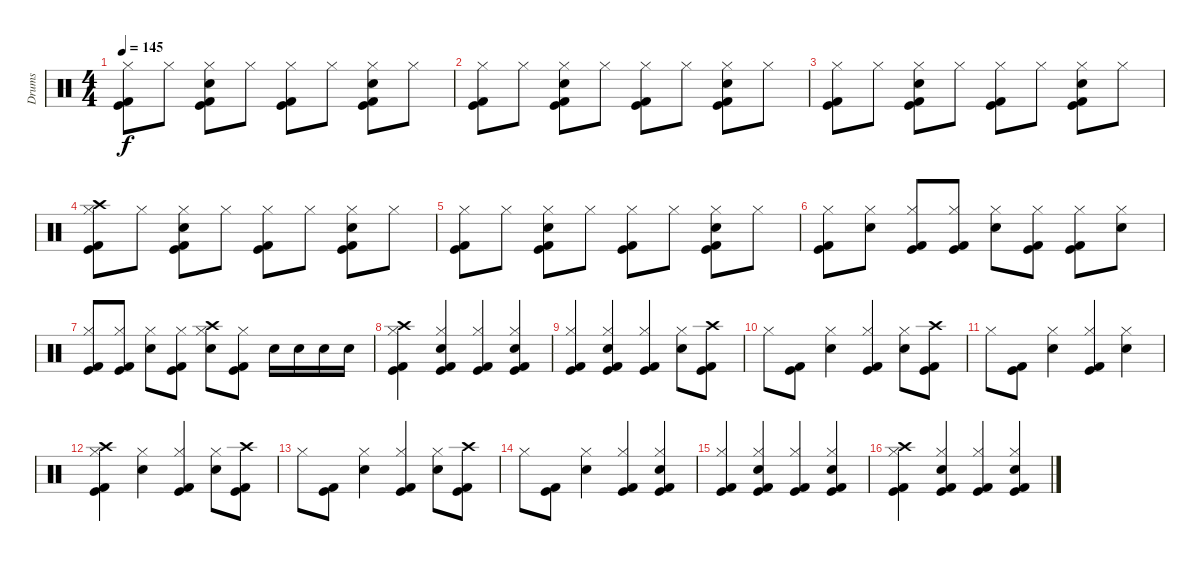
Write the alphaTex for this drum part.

\track ("Drums" "Drums") {instrument percussion}
\staff {score}
\articulation defaults
\ts (4 4)
\tempo 145
\clef neutral
\ks c
("Kick (hit) 2" "Hi-Hat (closed)" "Kick (hit)").8{dy f} "Hi-Hat (closed)".8 ("Electric Snare (hit)" "Hi-Hat (closed)" "Kick (hit) 2" "Kick (hit)").8 "Hi-Hat (closed)".8 ("Kick (hit) 2" "Hi-Hat (closed)" "Kick (hit)").8 "Hi-Hat (closed)".8 ("Electric Snare (hit)" "Hi-Hat (closed)" "Kick (hit) 2" "Kick (hit)").8 "Hi-Hat (closed)".8 |
("Hi-Hat (closed)" "Kick (hit) 2" "Kick (hit)").8 "Hi-Hat (closed)".8 ("Hi-Hat (closed)" "Electric Snare (hit)" "Kick (hit) 2" "Kick (hit)").8 "Hi-Hat (closed)".8 ("Hi-Hat (closed)" "Kick (hit) 2" "Kick (hit)").8 "Hi-Hat (closed)".8 ("Hi-Hat (closed)" "Electric Snare (hit)" "Kick (hit) 2" "Kick (hit)").8 "Hi-Hat (closed)".8 |
("Hi-Hat (closed)" "Kick (hit) 2" "Kick (hit)").8 "Hi-Hat (closed)".8 ("Hi-Hat (closed)" "Electric Snare (hit)" "Kick (hit) 2" "Kick (hit)").8 "Hi-Hat (closed)".8 ("Hi-Hat (closed)" "Kick (hit) 2" "Kick (hit)").8 "Hi-Hat (closed)".8 ("Hi-Hat (closed)" "Electric Snare (hit)" "Kick (hit) 2" "Kick (hit)").8 "Hi-Hat (closed)".8 |
("Crash high (hit)" "Kick (hit) 2" "Hi-Hat (closed)" "Kick (hit)").8 "Hi-Hat (closed)".8 ("Electric Snare (hit)" "Hi-Hat (closed)" "Kick (hit) 2" "Kick (hit)").8 "Hi-Hat (closed)".8 ("Kick (hit) 2" "Hi-Hat (closed)" "Kick (hit)").8 "Hi-Hat (closed)".8 ("Hi-Hat (closed)" "Electric Snare (hit)" "Kick (hit) 2" "Kick (hit)").8 "Hi-Hat (closed)".8 |
("Kick (hit) 2" "Hi-Hat (closed)" "Kick (hit)").8 "Hi-Hat (closed)".8 ("Electric Snare (hit)" "Hi-Hat (closed)" "Kick (hit) 2" "Kick (hit)").8 "Hi-Hat (closed)".8 ("Kick (hit) 2" "Hi-Hat (closed)" "Kick (hit)").8 "Hi-Hat (closed)".8 ("Electric Snare (hit)" "Hi-Hat (closed)" "Kick (hit) 2" "Kick (hit)").8 "Hi-Hat (closed)".8 |
("Kick (hit) 2" "Hi-Hat (closed)" "Kick (hit)").8 ("Hi-Hat (closed)" "Electric Snare (hit)").8 ("Hi-Hat (closed)" "Kick (hit) 2" "Kick (hit)").8 ("Kick (hit) 2" "Hi-Hat (closed)" "Kick (hit)").8 ("Hi-Hat (closed)" "Electric Snare (hit)").8 ("Hi-Hat (closed)" "Kick (hit) 2" "Kick (hit)").8 ("Hi-Hat (closed)" "Kick (hit) 2" "Kick (hit)").8 ("Electric Snare (hit)" "Hi-Hat (closed)").8 |
("Hi-Hat (closed)" "Kick (hit) 2" "Kick (hit)").8 ("Hi-Hat (closed)" "Kick (hit) 2" "Kick (hit)").8 ("Electric Snare (hit)" "Hi-Hat (closed)").8 ("Hi-Hat (closed)" "Kick (hit) 2" "Kick (hit)").8 ("Crash high (hit)" "Hi-Hat (closed)" "Electric Snare (hit)").8 ("Hi-Hat (closed)" "Kick (hit) 2" "Kick (hit)").8 "Electric Snare (hit)".16 "Electric Snare (hit)".16 "Electric Snare (hit)".16 "Electric Snare (hit)".16 |
("Crash high (hit)" "Hi-Hat (closed)" "Kick (hit) 2" "Kick (hit)").4 ("Hi-Hat (closed)" "Electric Snare (hit)" "Kick (hit) 2" "Kick (hit)").4 ("Hi-Hat (closed)" "Kick (hit) 2" "Kick (hit)").4 ("Electric Snare (hit)" "Hi-Hat (closed)" "Kick (hit) 2" "Kick (hit)").4 |
("Kick (hit) 2" "Hi-Hat (closed)" "Kick (hit)").4 ("Electric Snare (hit)" "Hi-Hat (closed)" "Kick (hit) 2" "Kick (hit)").4 ("Hi-Hat (closed)" "Kick (hit) 2" "Kick (hit)").4 ("Hi-Hat (closed)" "Electric Snare (hit)").8 ("Kick (hit) 2" "Crash high (hit)" "Kick (hit)").8 |
"Hi-Hat (closed)".8 ("Kick (hit) 2" "Kick (hit)").8 ("Hi-Hat (closed)" "Electric Snare (hit)").4 ("Hi-Hat (closed)" "Kick (hit) 2" "Kick (hit)").4 ("Electric Snare (hit)" "Hi-Hat (closed)").8 ("Kick (hit) 2" "Crash high (hit)" "Kick (hit)").8 |
"Hi-Hat (closed)".8 ("Kick (hit) 2" "Kick (hit)").8 ("Electric Snare (hit)" "Hi-Hat (closed)").4 ("Hi-Hat (closed)" "Kick (hit) 2" "Kick (hit)").4 ("Hi-Hat (closed)" "Electric Snare (hit)").4 |
("Crash high (hit)" "Hi-Hat (closed)" "Kick (hit) 2" "Kick (hit)").4 ("Hi-Hat (closed)" "Electric Snare (hit)").4 ("Hi-Hat (closed)" "Kick (hit) 2" "Kick (hit)").4 ("Electric Snare (hit)" "Hi-Hat (closed)").8 ("Crash high (hit)" "Kick (hit) 2" "Kick (hit)").8 |
"Hi-Hat (closed)".8 ("Kick (hit) 2" "Kick (hit)").8 ("Electric Snare (hit)" "Hi-Hat (closed)").4 ("Hi-Hat (closed)" "Kick (hit) 2" "Kick (hit)").4 ("Hi-Hat (closed)" "Electric Snare (hit)").8 ("Crash high (hit)" "Kick (hit) 2" "Kick (hit)").8 |
"Hi-Hat (closed)".8 ("Kick (hit) 2" "Kick (hit)").8 ("Hi-Hat (closed)" "Electric Snare (hit)").4 ("Hi-Hat (closed)" "Kick (hit) 2" "Kick (hit)").4 ("Electric Snare (hit)" "Hi-Hat (closed)" "Kick (hit) 2" "Kick (hit)").4 |
("Hi-Hat (closed)" "Kick (hit) 2" "Kick (hit)").4 ("Hi-Hat (closed)" "Electric Snare (hit)" "Kick (hit) 2" "Kick (hit)").4 ("Hi-Hat (closed)" "Kick (hit) 2" "Kick (hit)").4 ("Hi-Hat (closed)" "Electric Snare (hit)" "Kick (hit) 2" "Kick (hit)").4 |
("Crash high (hit)" "Hi-Hat (closed)" "Kick (hit) 2" "Kick (hit)").4 ("Hi-Hat (closed)" "Electric Snare (hit)" "Kick (hit) 2" "Kick (hit)").4 ("Hi-Hat (closed)" "Kick (hit) 2" "Kick (hit)").4 ("Electric Snare (hit)" "Hi-Hat (closed)" "Kick (hit) 2" "Kick (hit)").4
